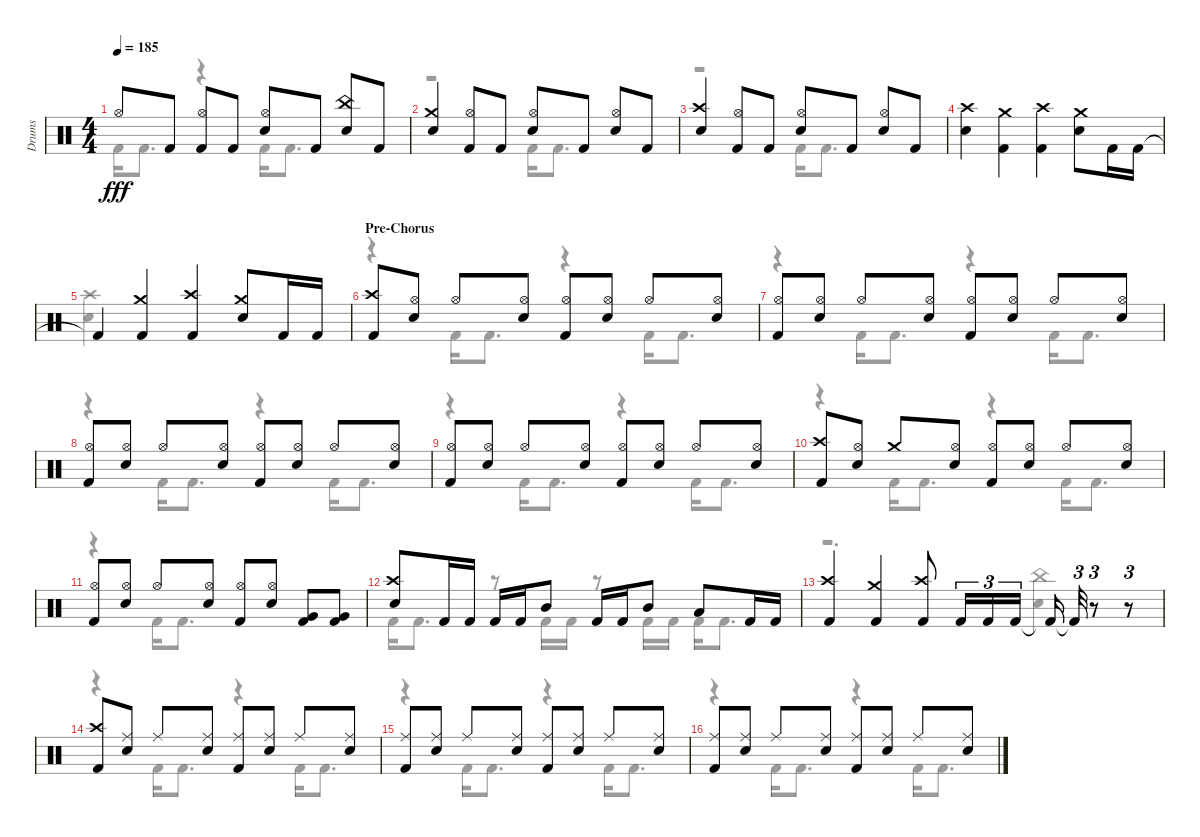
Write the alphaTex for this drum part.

\track ("Drums" "Drums") {instrument percussion}
\staff {score}
\articulation defaults
\voice
\ts (4 4)
\tempo 185
\clef neutral
\ks aminor "Hi-Hat (open)".8{dy fff} "Kick (hit) 2".8
("Kick (hit) 2" "Hi-Hat (open)").8 "Kick (hit) 2".8 ("Snare (hit) 2" "Hi-Hat (open)").8 "Kick (hit) 2".8 ("Snare (hit) 2" "China (hit)").8 "Kick (hit) 2".8 |
("Crash medium (hit)" "Snare (hit) 2").4 ("Kick (hit) 2" "Hi-Hat (open)").8 "Kick (hit) 2".8 ("Hi-Hat (open)" "Snare (hit) 2").8 "Kick (hit) 2".8 ("Hi-Hat (open)" "Snare (hit) 2").8 "Kick (hit) 2".8 |
("Crash high (hit)" "Snare (hit) 2").4 ("Kick (hit) 2" "Hi-Hat (open)").8 "Kick (hit) 2".8 ("Snare (hit) 2" "Hi-Hat (open)").8 "Kick (hit) 2".8 ("Snare (hit) 2" "Hi-Hat (open)").8 "Kick (hit) 2".8 |
("Crash high (hit)" "Snare (hit) 2").4 ("Crash medium (hit)" "Kick (hit) 2").4 ("Kick (hit) 2" "Crash high (hit)").4 ("Crash medium (hit)" "Snare (hit) 2").8 "Kick (hit) 2".16 "Kick (hit) 2".16 |
"Kick (hit) 2"{t}.4 ("Crash medium (hit)" "Kick (hit) 2").4 ("Kick (hit) 2" "Crash high (hit)").4 ("Snare (hit) 2" "Crash medium (hit)").8 "Kick (hit) 2".16 "Kick (hit) 2".16 |
\section ("" "Pre-Chorus")
("Kick (hit) 2" "Crash high (hit)").8 ("Hi-Hat (open)" "Snare (hit) 2").8 "Hi-Hat (open)".8 ("Hi-Hat (open)" "Snare (hit) 2").8 ("Kick (hit) 2" "Hi-Hat (open)").8 ("Hi-Hat (open)" "Snare (hit) 2").8 "Hi-Hat (open)".8 ("Hi-Hat (open)" "Snare (hit) 2").8 |
("Hi-Hat (open)" "Kick (hit) 2").8 ("Hi-Hat (open)" "Snare (hit) 2").8 "Hi-Hat (open)".8 ("Snare (hit) 2" "Hi-Hat (open)").8 ("Hi-Hat (open)" "Kick (hit) 2").8 ("Snare (hit) 2" "Hi-Hat (open)").8 "Hi-Hat (open)".8 ("Snare (hit) 2" "Hi-Hat (open)").8 |
("Hi-Hat (open)" "Kick (hit) 2").8 ("Hi-Hat (open)" "Snare (hit) 2").8 "Hi-Hat (open)".8 ("Hi-Hat (open)" "Snare (hit) 2").8 ("Kick (hit) 2" "Hi-Hat (open)").8 ("Hi-Hat (open)" "Snare (hit) 2").8 "Hi-Hat (open)".8 ("Hi-Hat (open)" "Snare (hit) 2").8 |
("Hi-Hat (open)" "Kick (hit) 2").8 ("Hi-Hat (open)" "Snare (hit) 2").8 "Hi-Hat (open)".8 ("Hi-Hat (open)" "Snare (hit) 2").8 ("Kick (hit) 2" "Hi-Hat (open)").8 ("Hi-Hat (open)" "Snare (hit) 2").8 "Hi-Hat (open)".8 ("Snare (hit) 2" "Hi-Hat (open)").8 |
("Kick (hit) 2" "Crash high (hit)").8 ("Hi-Hat (open)" "Snare (hit) 2").8 "Crash medium (hit)".8 ("Hi-Hat (open)" "Snare (hit) 2").8 ("Hi-Hat (open)" "Kick (hit) 2").8 ("Snare (hit) 2" "Hi-Hat (open)").8 "Hi-Hat (open)".8 ("Hi-Hat (open)" "Snare (hit) 2").8 |
("Hi-Hat (open)" "Kick (hit) 2").8 ("Snare (hit) 2" "Hi-Hat (open)").8 "Hi-Hat (open)".8 ("Hi-Hat (open)" "Snare (hit) 2").8 ("Hi-Hat (open)" "Kick (hit) 2").8 ("Hi-Hat (open)" "Snare (hit) 2").8 ("Kick (hit) 2" "Very Low Tom (hit)").8 ("Very Low Tom (hit)" "Kick (hit) 2").8 |
("Snare (hit) 2" "Crash high (hit)").8 "Kick (hit) 2".16 "Kick (hit) 2".16 "Kick (hit) 2".16 "Kick (hit) 2".16 "Mid Tom (hit)".8 "Kick (hit) 2".16 "Kick (hit) 2".16 "Mid Tom (hit)".8 "Low Tom (hit)".8 "Kick (hit) 2".16 "Kick (hit) 2".16 |
("Kick (hit) 2" "Crash high (hit)").4 ("Kick (hit) 2" "Crash medium (hit)").4 ("Kick (hit) 2" "Crash high (hit)").8 "Kick (hit) 2".16{tu (3 2)} "Kick (hit) 2".16{tu (3 2)} "Kick (hit) 2".16{tu (3 2)} "Kick (hit) 2"{t}.16 "Kick (hit) 2"{t}.32{tu (3 2)} r.8{tu (3 2)} r.8{tu (3 2)} |
("Kick (hit) 2" "Crash high (hit)").8 ("Ride (middle)" "Snare (hit) 2").8 "Ride (middle)".8 ("Ride (middle)" "Snare (hit) 2").8 ("Ride (middle)" "Kick (hit) 2").8 ("Ride (middle)" "Snare (hit) 2").8 "Ride (middle)".8 ("Snare (hit) 2" "Ride (middle)").8 |
("Ride (middle)" "Kick (hit) 2").8 ("Ride (middle)" "Snare (hit) 2").8 "Ride (middle)".8 ("Ride (middle)" "Snare (hit) 2").8 ("Ride (middle)" "Kick (hit) 2").8 ("Snare (hit) 2" "Ride (middle)").8 "Ride (middle)".8 ("Ride (middle)" "Snare (hit) 2").8 |
("Ride (middle)" "Kick (hit) 2").8 ("Ride (middle)" "Snare (hit) 2").8 "Ride (middle)".8 ("Ride (middle)" "Snare (hit) 2").8 ("Ride (middle)" "Kick (hit) 2").8 ("Snare (hit) 2" "Ride (middle)").8 "Ride (middle)".8 ("Snare (hit) 2" "Ride (middle)").8
\voice
\clef neutral
\ottava regular
\simile none
\ks aminor "Kick (hit) 2".16{dy fff} "Kick (hit) 2".8{d}
r.4 "Kick (hit) 2".16 "Kick (hit) 2".8{d} |
r.2 "Kick (hit) 2".16 "Kick (hit) 2".8{d} |
r.2 "Kick (hit) 2".16 "Kick (hit) 2".8{d} |
|
("Crash high (hit)" "Snare (hit) 2").4 |
r.4 "Kick (hit) 2".16 "Kick (hit) 2".8{d} r.4 "Kick (hit) 2".16 "Kick (hit) 2".8{d} |
r.4 "Kick (hit) 2".16 "Kick (hit) 2".8{d} r.4 "Kick (hit) 2".16 "Kick (hit) 2".8{d} |
r.4 "Kick (hit) 2".16 "Kick (hit) 2".8{d} r.4 "Kick (hit) 2".16 "Kick (hit) 2".8{d} |
r.4 "Kick (hit) 2".16 "Kick (hit) 2".8{d} r.4 "Kick (hit) 2".16 "Kick (hit) 2".8{d} |
r.4 "Kick (hit) 2".16 "Kick (hit) 2".8{d} r.4 "Kick (hit) 2".16 "Kick (hit) 2".8{d} |
r.4 "Kick (hit) 2".16 "Kick (hit) 2".8{d} |
"Kick (hit) 2".16 "Kick (hit) 2".8{d} r.8 "Kick (hit) 2".16 "Kick (hit) 2".16 r.8 "Kick (hit) 2".16 "Kick (hit) 2".16 "Kick (hit) 2".16 "Kick (hit) 2".8{d} |
r.2{d} ("Snare (hit) 2" "China (hit)").4 |
r.4 "Kick (hit) 2".16 "Kick (hit) 2".8{d} r.4 "Kick (hit) 2".16 "Kick (hit) 2".8{d} |
r.4 "Kick (hit) 2".16 "Kick (hit) 2".8{d} r.4 "Kick (hit) 2".16 "Kick (hit) 2".8{d} |
r.4 "Kick (hit) 2".16 "Kick (hit) 2".8{d} r.4 "Kick (hit) 2".16 "Kick (hit) 2".8{d}
